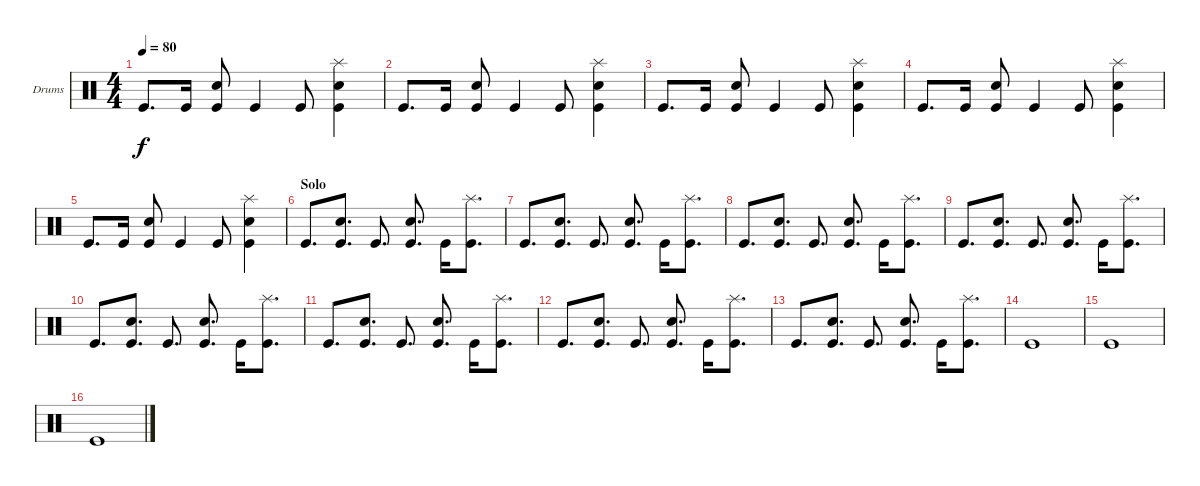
\defaultSystemsLayout 4
\bracketExtendMode groupsimilarinstruments
\firstSystemTrackNameOrientation horizontal
\otherSystemsTrackNameOrientation horizontal
\track ("Jimmy DeGrasso" "Drums") {instrument percussion}
\staff {score}
\articulation defaults
\ts (4 4)
\tempo 80
\clef neutral
\scale
0.333333
\ks c "Kick (hit)".8{d dy f} "Kick (hit)".16
("Kick (hit)" "Snare (hit) 2").8 "Kick (hit)".4 "Kick (hit)".8 ("Kick (hit)" "Snare (hit) 2" "Splash (hit)").4 |
\scale
0.333333 "Kick (hit)".8{d} "Kick (hit)".16 ("Kick (hit)" "Snare (hit) 2").8 "Kick (hit)".4 "Kick (hit)".8 ("Kick (hit)" "Snare (hit) 2" "Splash (hit)").4 |
\scale
0.333333 "Kick (hit)".8{d} "Kick (hit)".16 ("Kick (hit)" "Snare (hit) 2").8 "Kick (hit)".4 "Kick (hit)".8 ("Kick (hit)" "Snare (hit) 2" "Splash (hit)").4 |
\scale
0.333333 "Kick (hit)".8{d} "Kick (hit)".16 ("Kick (hit)" "Snare (hit) 2").8 "Kick (hit)".4 "Kick (hit)".8 ("Kick (hit)" "Snare (hit) 2" "Splash (hit)").4 |
\scale
0.333333 "Kick (hit)".8{d} "Kick (hit)".16 ("Kick (hit)" "Snare (hit) 2").8 "Kick (hit)".4 "Kick (hit)".8 ("Kick (hit)" "Snare (hit) 2" "Splash (hit)").4 |
\section ("" "Solo")
\scale
0.333333 "Kick (hit)".8{d} ("Kick (hit)" "Snare (hit) 2").8{d} "Kick (hit)".8{d} ("Kick (hit)" "Snare (hit) 2").8{d} "Kick (hit)".16 ("Kick (hit)" "Splash (hit)").8{d} |
\scale
0.333333 "Kick (hit)".8{d} ("Kick (hit)" "Snare (hit) 2").8{d} "Kick (hit)".8{d} ("Kick (hit)" "Snare (hit) 2").8{d} "Kick (hit)".16 ("Kick (hit)" "Splash (hit)").8{d} |
\scale
0.333333 "Kick (hit)".8{d} ("Kick (hit)" "Snare (hit) 2").8{d} "Kick (hit)".8{d} ("Kick (hit)" "Snare (hit) 2").8{d} "Kick (hit)".16 ("Kick (hit)" "Splash (hit)").8{d} |
\scale
0.333333 "Kick (hit)".8{d} ("Kick (hit)" "Snare (hit) 2").8{d} "Kick (hit)".8{d} ("Kick (hit)" "Snare (hit) 2").8{d} "Kick (hit)".16 ("Kick (hit)" "Splash (hit)").8{d} |
\scale
0.333333 "Kick (hit)".8{d} ("Kick (hit)" "Snare (hit) 2").8{d} "Kick (hit)".8{d} ("Kick (hit)" "Snare (hit) 2").8{d} "Kick (hit)".16 ("Kick (hit)" "Splash (hit)").8{d} |
\scale
0.333333 "Kick (hit)".8{d} ("Kick (hit)" "Snare (hit) 2").8{d} "Kick (hit)".8{d} ("Kick (hit)" "Snare (hit) 2").8{d} "Kick (hit)".16 ("Kick (hit)" "Splash (hit)").8{d} |
\scale
0.333333 "Kick (hit)".8{d} ("Kick (hit)" "Snare (hit) 2").8{d} "Kick (hit)".8{d} ("Kick (hit)" "Snare (hit) 2").8{d} "Kick (hit)".16 ("Kick (hit)" "Splash (hit)").8{d} |
\scale
0.333333 "Kick (hit)".8{d} ("Kick (hit)" "Snare (hit) 2").8{d} "Kick (hit)".8{d} ("Kick (hit)" "Snare (hit) 2").8{d} "Kick (hit)".16 ("Kick (hit)" "Splash (hit)").8{d} |
\scale
0.333333 "Kick (hit)".1 |
\scale
0.333333 "Kick (hit)".1 |
\scale
0.333333 "Kick (hit)".1
